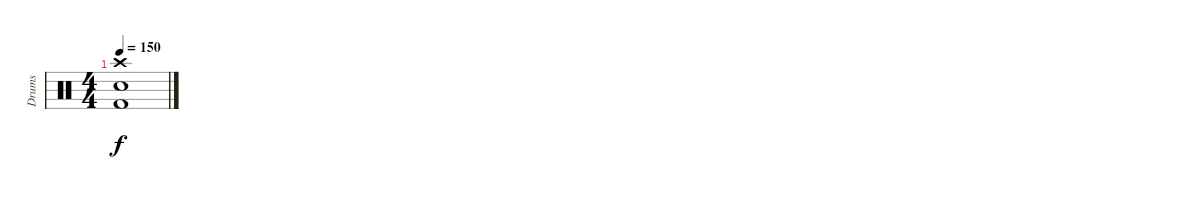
\track ("Drums" "Drums") {instrument percussion}
\staff {score}
\articulation defaults
\ts (4 4)
\tempo 150
\clef neutral
\ks c
("Crash high (hit)"{t} "Snare (hit) 2"{t} "Kick (hit) 2"{t}).1{dy f}
